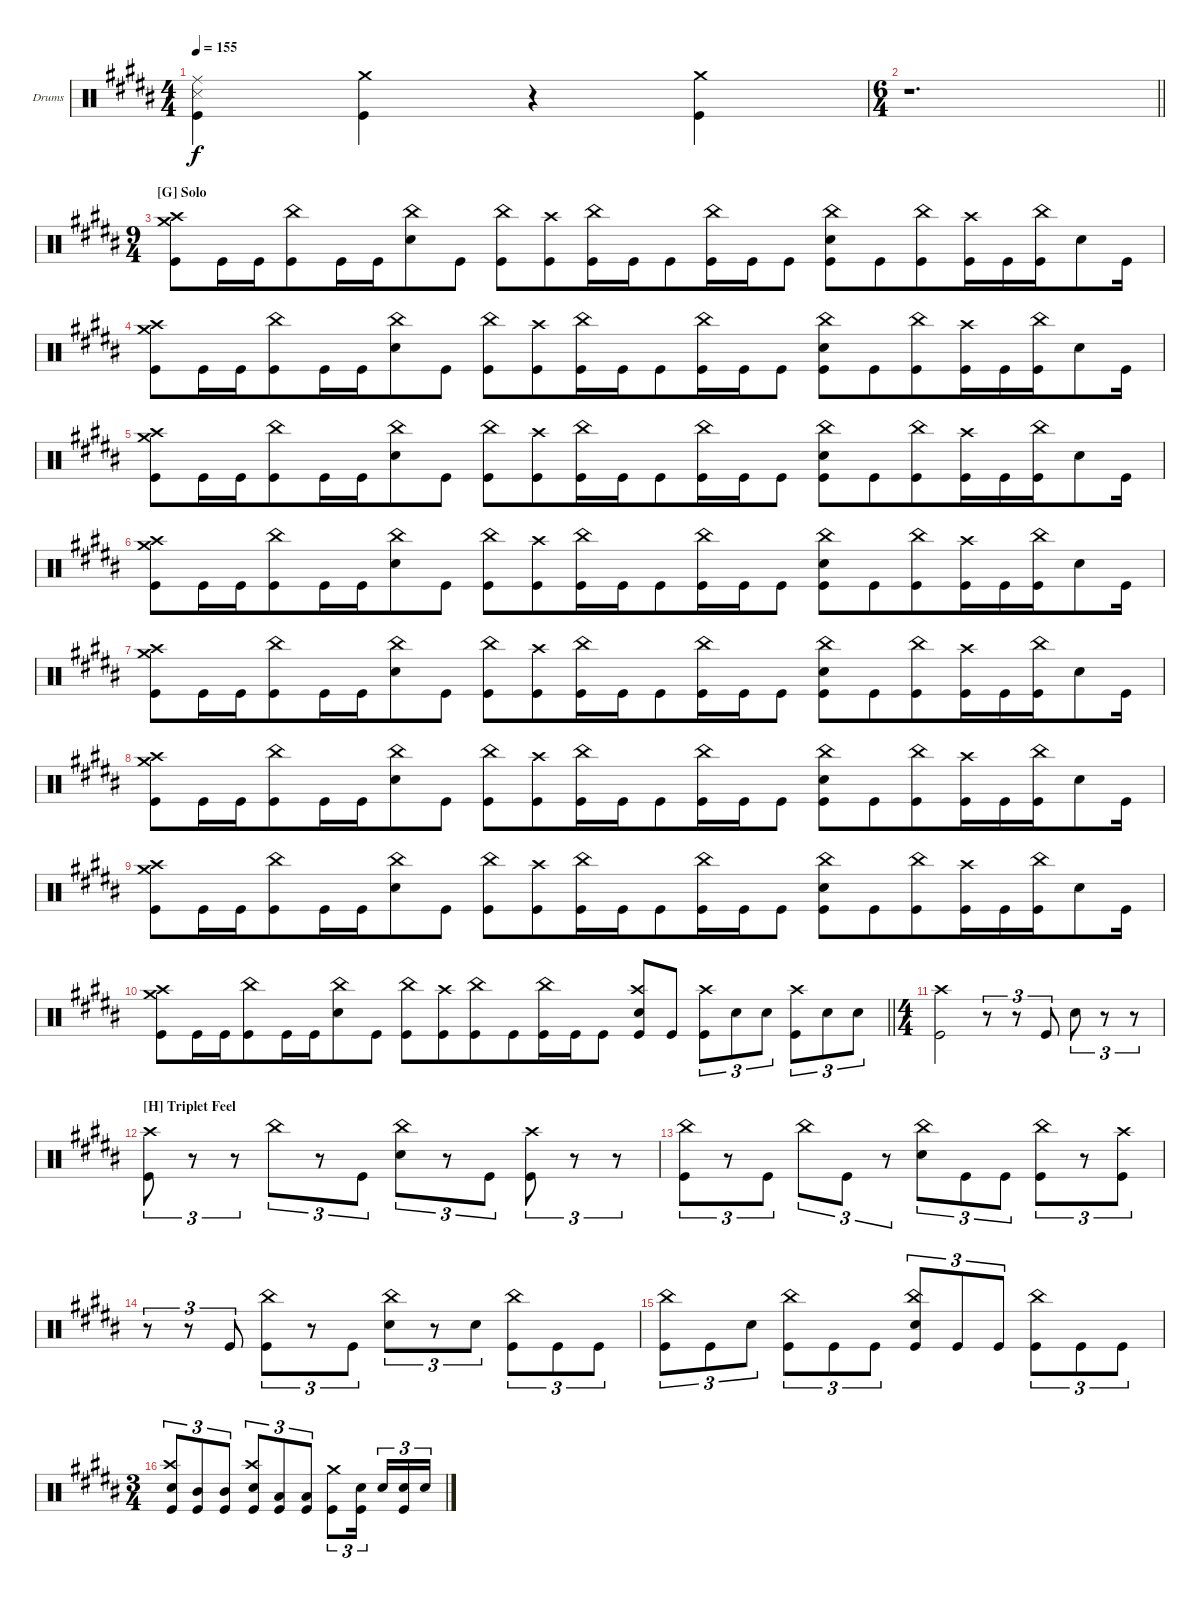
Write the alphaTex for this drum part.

\bracketExtendMode groupsimilarinstruments
\firstSystemTrackNameOrientation horizontal
\otherSystemsTrackNameOrientation horizontal
\track ("Navene Koperweis" "Drums") {instrument percussion}
\staff {score}
\articulation defaults
\ts (4 4)
\tempo 155
\clef neutral
\ks b
("Ride (middle)" "Snare (side stick) 3" "Kick (hit)").4{dy f} ("Crash medium (hit)" "Kick (hit)").4 r.4 ("Crash medium (hit)" "Kick (hit)").4 |
\ts (6 4)
\beaming (8 2 2 2 6)
\barLineRight lightlight
r.1{d} |
\ts (9 4)
\beaming (8 6 6 6)
\section ("G" "Solo")
("Crash medium (hit)" "Crash high (hit)" "Kick (hit)").8 "Kick (hit)".16 "Kick (hit)".16 ("China (hit)" "Kick (hit)").8 "Kick (hit)".16 "Kick (hit)".16 ("China (hit)" "Snare (hit) 2").8 "Kick (hit)".8 ("China (hit)" "Kick (hit)").8 ("Crash high (hit)" "Kick (hit)").8 ("China (hit)" "Kick (hit)").16 "Kick (hit)".16 "Kick (hit)".8 ("China (hit)" "Kick (hit)").16 "Kick (hit)".16 "Kick (hit)".8 ("China (hit)" "Snare (hit) 2" "Kick (hit)").8 "Kick (hit)".8 ("China (hit)" "Kick (hit)").8 ("Crash high (hit)" "Kick (hit)").16 "Kick (hit)".16 ("China (hit)" "Kick (hit)").16 "Snare (hit) 2".8 "Kick (hit)".16 |
("Crash medium (hit)" "Crash high (hit)" "Kick (hit)").8 "Kick (hit)".16 "Kick (hit)".16 ("China (hit)" "Kick (hit)").8 "Kick (hit)".16 "Kick (hit)".16 ("China (hit)" "Snare (hit) 2").8 "Kick (hit)".8 ("China (hit)" "Kick (hit)").8 ("Crash high (hit)" "Kick (hit)").8 ("China (hit)" "Kick (hit)").16 "Kick (hit)".16 "Kick (hit)".8 ("China (hit)" "Kick (hit)").16 "Kick (hit)".16 "Kick (hit)".8 ("China (hit)" "Snare (hit) 2" "Kick (hit)").8 "Kick (hit)".8 ("China (hit)" "Kick (hit)").8 ("Crash high (hit)" "Kick (hit)").16 "Kick (hit)".16 ("China (hit)" "Kick (hit)").16 "Snare (hit) 2".8 "Kick (hit)".16 |
("Crash medium (hit)" "Crash high (hit)" "Kick (hit)").8 "Kick (hit)".16 "Kick (hit)".16 ("China (hit)" "Kick (hit)").8 "Kick (hit)".16 "Kick (hit)".16 ("China (hit)" "Snare (hit) 2").8 "Kick (hit)".8 ("China (hit)" "Kick (hit)").8 ("Crash high (hit)" "Kick (hit)").8 ("China (hit)" "Kick (hit)").16 "Kick (hit)".16 "Kick (hit)".8 ("China (hit)" "Kick (hit)").16 "Kick (hit)".16 "Kick (hit)".8 ("China (hit)" "Snare (hit) 2" "Kick (hit)").8 "Kick (hit)".8 ("China (hit)" "Kick (hit)").8 ("Crash high (hit)" "Kick (hit)").16 "Kick (hit)".16 ("China (hit)" "Kick (hit)").16 "Snare (hit) 2".8 "Kick (hit)".16 |
("Crash medium (hit)" "Crash high (hit)" "Kick (hit)").8 "Kick (hit)".16 "Kick (hit)".16 ("China (hit)" "Kick (hit)").8 "Kick (hit)".16 "Kick (hit)".16 ("China (hit)" "Snare (hit) 2").8 "Kick (hit)".8 ("China (hit)" "Kick (hit)").8 ("Crash high (hit)" "Kick (hit)").8 ("China (hit)" "Kick (hit)").16 "Kick (hit)".16 "Kick (hit)".8 ("China (hit)" "Kick (hit)").16 "Kick (hit)".16 "Kick (hit)".8 ("China (hit)" "Snare (hit) 2" "Kick (hit)").8 "Kick (hit)".8 ("China (hit)" "Kick (hit)").8 ("Crash high (hit)" "Kick (hit)").16 "Kick (hit)".16 ("China (hit)" "Kick (hit)").16 "Snare (hit) 2".8 "Kick (hit)".16 |
("Crash medium (hit)" "Crash high (hit)" "Kick (hit)").8 "Kick (hit)".16 "Kick (hit)".16 ("China (hit)" "Kick (hit)").8 "Kick (hit)".16 "Kick (hit)".16 ("China (hit)" "Snare (hit) 2").8 "Kick (hit)".8 ("China (hit)" "Kick (hit)").8 ("Crash high (hit)" "Kick (hit)").8 ("China (hit)" "Kick (hit)").16 "Kick (hit)".16 "Kick (hit)".8 ("China (hit)" "Kick (hit)").16 "Kick (hit)".16 "Kick (hit)".8 ("China (hit)" "Snare (hit) 2" "Kick (hit)").8 "Kick (hit)".8 ("China (hit)" "Kick (hit)").8 ("Crash high (hit)" "Kick (hit)").16 "Kick (hit)".16 ("China (hit)" "Kick (hit)").16 "Snare (hit) 2".8 "Kick (hit)".16 |
("Crash medium (hit)" "Crash high (hit)" "Kick (hit)").8 "Kick (hit)".16 "Kick (hit)".16 ("China (hit)" "Kick (hit)").8 "Kick (hit)".16 "Kick (hit)".16 ("China (hit)" "Snare (hit) 2").8 "Kick (hit)".8 ("China (hit)" "Kick (hit)").8 ("Crash high (hit)" "Kick (hit)").8 ("China (hit)" "Kick (hit)").16 "Kick (hit)".16 "Kick (hit)".8 ("China (hit)" "Kick (hit)").16 "Kick (hit)".16 "Kick (hit)".8 ("China (hit)" "Snare (hit) 2" "Kick (hit)").8 "Kick (hit)".8 ("China (hit)" "Kick (hit)").8 ("Crash high (hit)" "Kick (hit)").16 "Kick (hit)".16 ("China (hit)" "Kick (hit)").16 "Snare (hit) 2".8 "Kick (hit)".16 |
("Crash medium (hit)" "Crash high (hit)" "Kick (hit)").8 "Kick (hit)".16 "Kick (hit)".16 ("China (hit)" "Kick (hit)").8 "Kick (hit)".16 "Kick (hit)".16 ("China (hit)" "Snare (hit) 2").8 "Kick (hit)".8 ("China (hit)" "Kick (hit)").8 ("Crash high (hit)" "Kick (hit)").8 ("China (hit)" "Kick (hit)").16 "Kick (hit)".16 "Kick (hit)".8 ("China (hit)" "Kick (hit)").16 "Kick (hit)".16 "Kick (hit)".8 ("China (hit)" "Snare (hit) 2" "Kick (hit)").8 "Kick (hit)".8 ("China (hit)" "Kick (hit)").8 ("Crash high (hit)" "Kick (hit)").16 "Kick (hit)".16 ("China (hit)" "Kick (hit)").16 "Snare (hit) 2".8 "Kick (hit)".16 |
\barLineRight lightlight
("Crash medium (hit)" "Crash high (hit)" "Kick (hit)").8 "Kick (hit)".16 "Kick (hit)".16 ("China (hit)" "Kick (hit)").8 "Kick (hit)".16 "Kick (hit)".16 ("China (hit)" "Snare (hit) 2").8 "Kick (hit)".8 ("China (hit)" "Kick (hit)").8 ("Crash high (hit)" "Kick (hit)").8 ("China (hit)" "Kick (hit)").8 "Kick (hit)".8 ("China (hit)" "Kick (hit)").16 "Kick (hit)".16 "Kick (hit)".8 ("Crash high (hit)" "Snare (hit) 2" "Kick (hit)").8 "Kick (hit)".8 ("Crash high (hit)" "Kick (hit)").8{tu (3 2)} "Snare (hit) 2".8{tu (3 2)} "Snare (hit) 2".8{tu (3 2)} ("Crash high (hit)" "Kick (hit)").8{tu (3 2)} "Snare (hit) 2".8{tu (3 2)} "Snare (hit) 2".8{tu (3 2)} |
\ts (4 4)
\beaming (8 2 2 2 2)
("Crash high (hit)" "Kick (hit)").2 r.8{tu (3 2)} r.8{tu (3 2)} "Kick (hit)".8{tu (3 2)} "Snare (hit) 2".8{tu (3 2)} r.8{tu (3 2)} r.8{tu (3 2)} |
\section ("H" "Triplet Feel")
("Crash high (hit)" "Kick (hit)").8{tu (3 2)} r.8{tu (3 2)} r.8{tu (3 2)} "China (hit)".8{tu (3 2)} r.8{tu (3 2)} "Kick (hit)".8{tu (3 2)} ("China (hit)" "Snare (hit) 2").8{tu (3 2)} r.8{tu (3 2)} "Kick (hit)".8{tu (3 2)} ("Crash high (hit)" "Kick (hit)").8{tu (3 2)} r.8{tu (3 2)} r.8{tu (3 2)} |
("China (hit)" "Kick (hit)").8{tu (3 2)} r.8{tu (3 2)} "Kick (hit)".8{tu (3 2)} "China (hit)".8{tu (3 2)} "Kick (hit)".8{tu (3 2)} r.8{tu (3 2)} ("China (hit)" "Snare (hit) 2").8{tu (3 2)} "Kick (hit)".8{tu (3 2)} "Kick (hit)".8{tu (3 2)} ("China (hit)" "Kick (hit)").8{tu (3 2)} r.8{tu (3 2)} ("Crash high (hit)" "Kick (hit)").8{tu (3 2)} |
r.8{tu (3 2)} r.8{tu (3 2)} "Kick (hit)".8{tu (3 2)} ("China (hit)" "Kick (hit)").8{tu (3 2)} r.8{tu (3 2)} "Kick (hit)".8{tu (3 2)} ("China (hit)" "Snare (hit) 2").8{tu (3 2)} r.8{tu (3 2)} "Snare (hit) 2".8{tu (3 2)} ("China (hit)" "Kick (hit)").8{tu (3 2)} "Kick (hit)".8{tu (3 2)} "Kick (hit)".8{tu (3 2)} |
("China (hit)" "Kick (hit)").8{tu (3 2)} "Kick (hit)".8{tu (3 2)} "Snare (hit) 2".8{tu (3 2)} ("China (hit)" "Kick (hit)").8{tu (3 2)} "Kick (hit)".8{tu (3 2)} "Kick (hit)".8{tu (3 2)} ("China (hit)" "Snare (hit) 2" "Kick (hit)").8{tu (3 2)} "Kick (hit)".8{tu (3 2)} "Kick (hit)".8{tu (3 2)} ("China (hit)" "Kick (hit)").8{tu (3 2)} "Kick (hit)".8{tu (3 2)} "Kick (hit)".8{tu (3 2)} |
\ts (3 4)
\beaming (8 2 2 2)
("Crash high (hit)" "Snare (hit) 2" "Kick (hit)").8{tu (3 2)} ("Mid Tom (hit)" "Kick (hit)").8{tu (3 2)} ("Mid Tom (hit)" "Kick (hit)").8{tu (3 2)} ("Crash high (hit)" "Snare (hit) 2" "Kick (hit)").8{tu (3 2)} ("Low Tom (hit)" "Kick (hit)").8{tu (3 2)} ("Low Tom (hit)" "Kick (hit)").8{tu (3 2)} ("Crash medium (hit)" "Kick (hit)").8{tu (3 2)} ("Snare (hit) 2" "Kick (hit)").16{tu (3 2)} "Snare (hit) 2".16{tu (3 2)} ("Snare (hit) 2" "Kick (hit)").16{tu (3 2)} "Snare (hit) 2".16{tu (3 2)}
